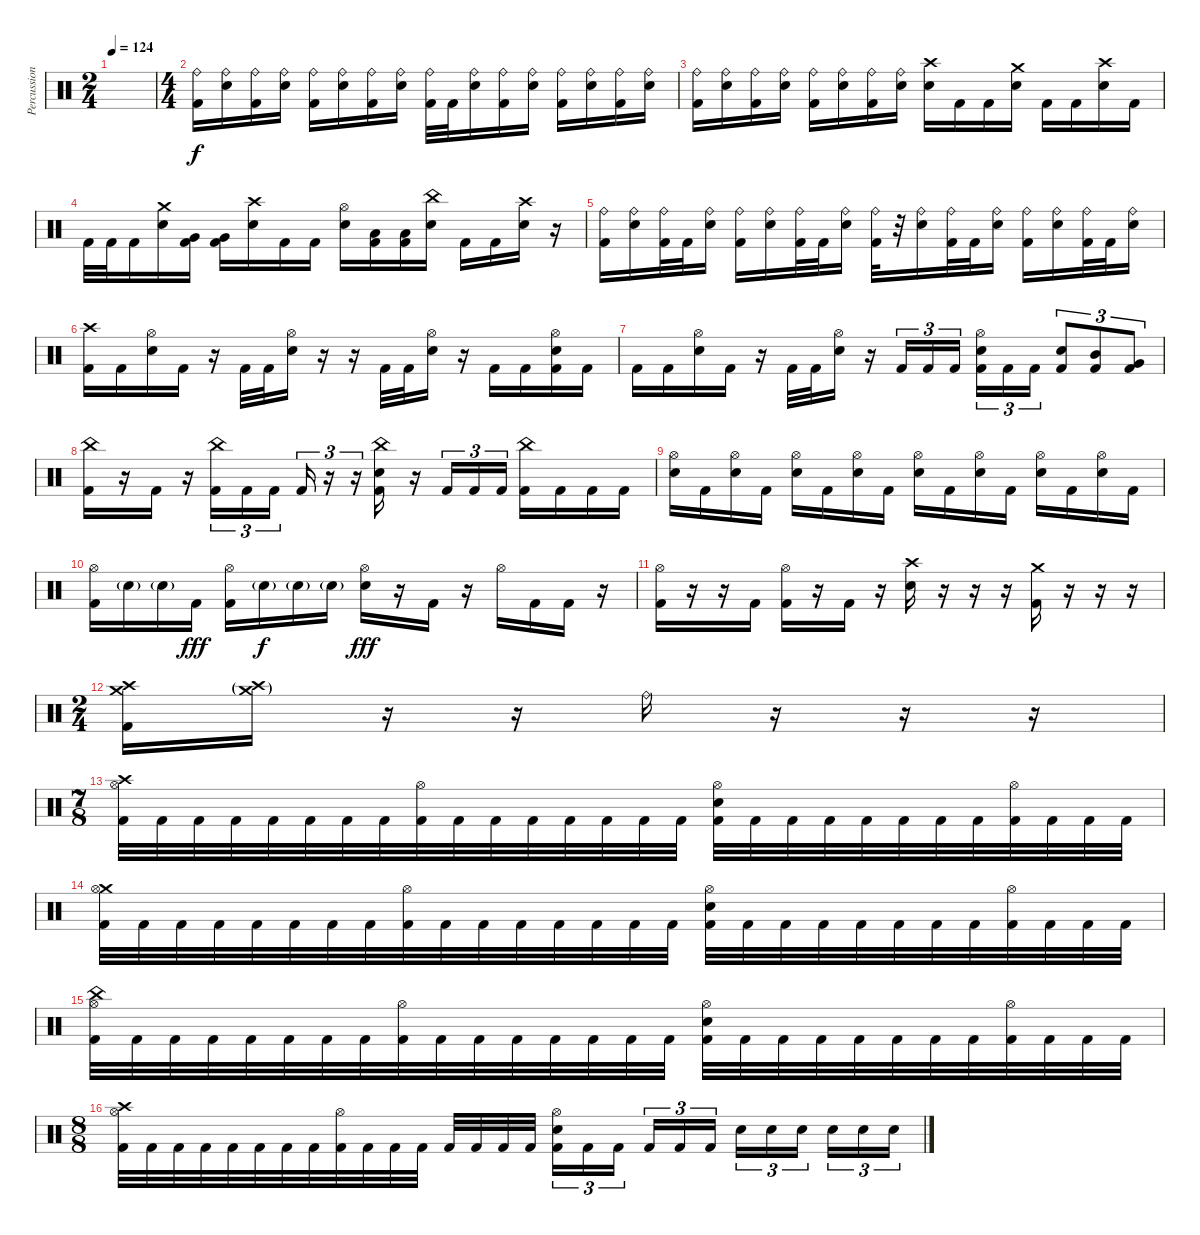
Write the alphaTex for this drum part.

\track ("Percussion" "Percussion") {instrument percussion}
\staff {score}
\articulation defaults
\ts (2 4)
\tempo 124
\clef neutral
\ks c
|
\ts (4 4)
("Ride (bell)" "Kick (hit) 2").16 ("Ride (bell)" "Snare (hit) 2").16 ("Ride (bell)" "Kick (hit) 2").16 ("Ride (bell)" "Snare (hit) 2").16 ("Ride (bell)" "Kick (hit) 2").16 ("Ride (bell)" "Snare (hit) 2").16 ("Ride (bell)" "Kick (hit) 2").16 ("Ride (bell)" "Snare (hit) 2").16 ("Ride (bell)" "Kick (hit) 2").32 "Kick (hit) 2".32 ("Ride (bell)" "Snare (hit) 2").16 ("Ride (bell)" "Kick (hit) 2").16 ("Ride (bell)" "Snare (hit) 2").16 ("Ride (bell)" "Kick (hit) 2").16 ("Ride (bell)" "Snare (hit) 2").16 ("Ride (bell)" "Kick (hit) 2").16 ("Ride (bell)" "Snare (hit) 2").16 |
("Ride (bell)" "Kick (hit) 2").16 ("Ride (bell)" "Snare (hit) 2").16 ("Ride (bell)" "Kick (hit) 2").16 ("Ride (bell)" "Snare (hit) 2").16 ("Ride (bell)" "Kick (hit) 2").16 ("Ride (bell)" "Snare (hit) 2").16 ("Ride (bell)" "Kick (hit) 2").16 ("Ride (bell)" "Snare (hit) 2").16 ("Crash high (hit)" "Snare (hit) 2").16 "Kick (hit) 2".16 "Kick (hit) 2".16 ("Crash medium (hit)" "Snare (hit) 2").16 "Kick (hit) 2".16 "Kick (hit) 2".16 ("Crash high (hit)" "Snare (hit) 2").16 "Kick (hit) 2".16 |
"Kick (hit) 2".32 "Kick (hit) 2".32 "Kick (hit) 2".16 ("Crash medium (hit)" "Snare (hit) 2").16 ("Very Low Tom (hit)" "Kick (hit) 2").16 ("Very Low Tom (hit)" "Kick (hit) 2").16 ("Crash high (hit)" "Snare (hit) 2").16 "Kick (hit) 2".16 "Kick (hit) 2".16 ("Hi-Hat (open)" "Snare (hit) 2").16 ("Low Floor Tom (hit)" "Kick (hit) 2").16 ("Low Floor Tom (hit)" "Kick (hit) 2").16 ("China (hit)" "Snare (hit) 2").16 "Kick (hit) 2".16 "Kick (hit) 2".16 ("Crash high (hit)" "Snare (hit) 2").16 r.16 |
("Ride (bell)" "Kick (hit) 2").16 ("Ride (bell)" "Snare (hit) 2").16 ("Ride (bell)" "Kick (hit) 2").32 "Kick (hit) 2".32 ("Ride (bell)" "Snare (hit) 2").16 ("Ride (bell)" "Kick (hit) 2").16 ("Ride (bell)" "Snare (hit) 2").16 ("Ride (bell)" "Kick (hit) 2").32 "Kick (hit) 2".32 ("Ride (bell)" "Snare (hit) 2").16 ("Ride (bell)" "Kick (hit) 2").32 r.32 ("Ride (bell)" "Snare (hit) 2").16 ("Ride (bell)" "Kick (hit) 2").32 "Kick (hit) 2".32 ("Ride (bell)" "Snare (hit) 2").16 ("Ride (bell)" "Kick (hit) 2").16 ("Ride (bell)" "Snare (hit) 2").16 ("Ride (bell)" "Kick (hit) 2").32 "Kick (hit) 2".32 ("Ride (bell)" "Snare (hit) 2").16 |
("Crash high (hit)" "Kick (hit) 2").16 "Kick (hit) 2".16 ("Hi-Hat (open)" "Snare (hit) 2").16 "Kick (hit) 2".16 r.16 "Kick (hit) 2".32 "Kick (hit) 2".32 ("Hi-Hat (open)" "Snare (hit) 2").16 r.16 r.16 "Kick (hit) 2".32 "Kick (hit) 2".32 ("Hi-Hat (open)" "Snare (hit) 2").16 r.16 "Kick (hit) 2".16 "Kick (hit) 2".16 ("Hi-Hat (open)" "Snare (hit) 2" "Kick (hit) 2").16 "Kick (hit) 2".16 |
"Kick (hit) 2".16 "Kick (hit) 2".16 ("Hi-Hat (open)" "Snare (hit) 2").16 "Kick (hit) 2".16 r.16 "Kick (hit) 2".32 "Kick (hit) 2".32 ("Hi-Hat (open)" "Snare (hit) 2").16 r.16 "Kick (hit) 2".16{tu (3 2)} "Kick (hit) 2".16{tu (3 2)} "Kick (hit) 2".16{tu (3 2) beam splitsecondary} ("Hi-Hat (open)" "Snare (hit) 2" "Kick (hit) 2").16{tu (3 2)} "Kick (hit) 2".16{tu (3 2)} "Kick (hit) 2".16{tu (3 2)} ("Snare (hit) 2" "Kick (hit) 2").8{tu (3 2)} ("Mid Tom (hit)" "Kick (hit) 2").8{tu (3 2)} ("Very Low Tom (hit)" "Kick (hit) 2").8{tu (3 2)} |
("China (hit)" "Kick (hit) 2").16 r.16 "Kick (hit) 2".16 r.16 ("China (hit)" "Kick (hit) 2").16{tu (3 2)} "Kick (hit) 2".16{tu (3 2)} "Kick (hit) 2".16{tu (3 2) beam splitsecondary} "Kick (hit) 2".16{tu (3 2)} r.16{tu (3 2)} r.16{tu (3 2)} ("China (hit)" "Snare (hit) 2" "Kick (hit) 2").16 r.16 "Kick (hit) 2".16{tu (3 2)} "Kick (hit) 2".16{tu (3 2)} "Kick (hit) 2".16{tu (3 2)} ("China (hit)" "Kick (hit) 2").16 "Kick (hit) 2".16 "Kick (hit) 2".16 "Kick (hit) 2".16 |
("Hi-Hat (open)" "Snare (hit) 2").16 "Kick (hit) 2".16 ("Hi-Hat (open)" "Snare (hit) 2").16 "Kick (hit) 2".16 ("Hi-Hat (open)" "Snare (hit) 2").16 "Kick (hit) 2".16 ("Hi-Hat (open)" "Snare (hit) 2").16 "Kick (hit) 2".16 ("Hi-Hat (open)" "Snare (hit) 2").16 "Kick (hit) 2".16 ("Hi-Hat (open)" "Snare (hit) 2").16 "Kick (hit) 2".16 ("Hi-Hat (open)" "Snare (hit) 2").16 "Kick (hit) 2".16 ("Hi-Hat (open)" "Snare (hit) 2").16 "Kick (hit) 2".16 |
("Hi-Hat (open)" "Kick (hit) 2").16 "Snare (hit) 2"{g}.16{dy f} "Snare (hit) 2"{g}.16 "Kick (hit) 2".16{dy fff} ("Hi-Hat (open)" "Kick (hit) 2").16 "Snare (hit) 2"{g}.16{dy f} "Snare (hit) 2"{g}.16 "Snare (hit) 2"{g}.16 ("Hi-Hat (open)" "Snare (hit) 2").16{dy fff} r.16 "Kick (hit) 2".16 r.16 "Hi-Hat (open)".16 "Kick (hit) 2".16 "Kick (hit) 2".16 r.16 |
("Hi-Hat (open)" "Kick (hit) 2").16 r.16 r.16 "Kick (hit) 2".16 ("Hi-Hat (open)" "Kick (hit) 2").16 r.16 "Kick (hit) 2".16 r.16 ("Crash high (hit)" "Snare (hit) 2").16 r.16 r.16 r.16 ("Crash medium (hit)" "Kick (hit) 2").16 r.16 r.16 r.16 |
\ts (2 4)
("Crash medium (hit)" "Crash high (hit)" "Kick (hit) 2").16 ("Crash medium (hit)"{g} "Crash high (hit)"{g}).16 r.16 r.16 "Ride (bell)".16 r.16 r.16 r.16 |
\ts (7 8)
("Crash high (hit)" "Hi-Hat (open)" "Kick (hit) 2").32 "Kick (hit) 2".32 "Kick (hit) 2".32 "Kick (hit) 2".32 "Kick (hit) 2".32 "Kick (hit) 2".32 "Kick (hit) 2".32 "Kick (hit) 2".32 ("Hi-Hat (open)" "Kick (hit) 2").32 "Kick (hit) 2".32 "Kick (hit) 2".32 "Kick (hit) 2".32 "Kick (hit) 2".32 "Kick (hit) 2".32 "Kick (hit) 2".32 "Kick (hit) 2".32 ("Hi-Hat (open)" "Snare (hit) 2" "Kick (hit) 2").32 "Kick (hit) 2".32 "Kick (hit) 2".32 "Kick (hit) 2".32 "Kick (hit) 2".32 "Kick (hit) 2".32 "Kick (hit) 2".32 "Kick (hit) 2".32 ("Hi-Hat (open)" "Kick (hit) 2").32 "Kick (hit) 2".32 "Kick (hit) 2".32 "Kick (hit) 2".32 |
("Crash medium (hit)" "Hi-Hat (open)" "Kick (hit) 2").32 "Kick (hit) 2".32 "Kick (hit) 2".32 "Kick (hit) 2".32 "Kick (hit) 2".32 "Kick (hit) 2".32 "Kick (hit) 2".32 "Kick (hit) 2".32 ("Hi-Hat (open)" "Kick (hit) 2").32 "Kick (hit) 2".32 "Kick (hit) 2".32 "Kick (hit) 2".32 "Kick (hit) 2".32 "Kick (hit) 2".32 "Kick (hit) 2".32 "Kick (hit) 2".32 ("Hi-Hat (open)" "Snare (hit) 2" "Kick (hit) 2").32 "Kick (hit) 2".32 "Kick (hit) 2".32 "Kick (hit) 2".32 "Kick (hit) 2".32 "Kick (hit) 2".32 "Kick (hit) 2".32 "Kick (hit) 2".32 ("Hi-Hat (open)" "Kick (hit) 2").32 "Kick (hit) 2".32 "Kick (hit) 2".32 "Kick (hit) 2".32 |
("China (hit)" "Hi-Hat (open)" "Kick (hit) 2").32 "Kick (hit) 2".32 "Kick (hit) 2".32 "Kick (hit) 2".32 "Kick (hit) 2".32 "Kick (hit) 2".32 "Kick (hit) 2".32 "Kick (hit) 2".32 ("Hi-Hat (open)" "Kick (hit) 2").32 "Kick (hit) 2".32 "Kick (hit) 2".32 "Kick (hit) 2".32 "Kick (hit) 2".32 "Kick (hit) 2".32 "Kick (hit) 2".32 "Kick (hit) 2".32 ("Hi-Hat (open)" "Snare (hit) 2" "Kick (hit) 2").32 "Kick (hit) 2".32 "Kick (hit) 2".32 "Kick (hit) 2".32 "Kick (hit) 2".32 "Kick (hit) 2".32 "Kick (hit) 2".32 "Kick (hit) 2".32 ("Hi-Hat (open)" "Kick (hit) 2").32 "Kick (hit) 2".32 "Kick (hit) 2".32 "Kick (hit) 2".32 |
\ts (8 8)
("Crash high (hit)" "Hi-Hat (open)" "Kick (hit) 2").32 "Kick (hit) 2".32 "Kick (hit) 2".32 "Kick (hit) 2".32 "Kick (hit) 2".32 "Kick (hit) 2".32 "Kick (hit) 2".32 "Kick (hit) 2".32 ("Hi-Hat (open)" "Kick (hit) 2").32 "Kick (hit) 2".32 "Kick (hit) 2".32 "Kick (hit) 2".32 "Kick (hit) 2".32 "Kick (hit) 2".32 "Kick (hit) 2".32 "Kick (hit) 2".32 ("Hi-Hat (open)" "Snare (hit) 2" "Kick (hit) 2").16{tu (3 2)} "Kick (hit) 2".16{tu (3 2)} "Kick (hit) 2".16{tu (3 2)} "Kick (hit) 2".16{tu (3 2)} "Kick (hit) 2".16{tu (3 2)} "Kick (hit) 2".16{tu (3 2)} "Snare (hit) 2".16{tu (3 2)} "Snare (hit) 2".16{tu (3 2)} "Snare (hit) 2".16{tu (3 2)} "Snare (hit) 2".16{tu (3 2)} "Snare (hit) 2".16{tu (3 2)} "Snare (hit) 2".16{tu (3 2)}
